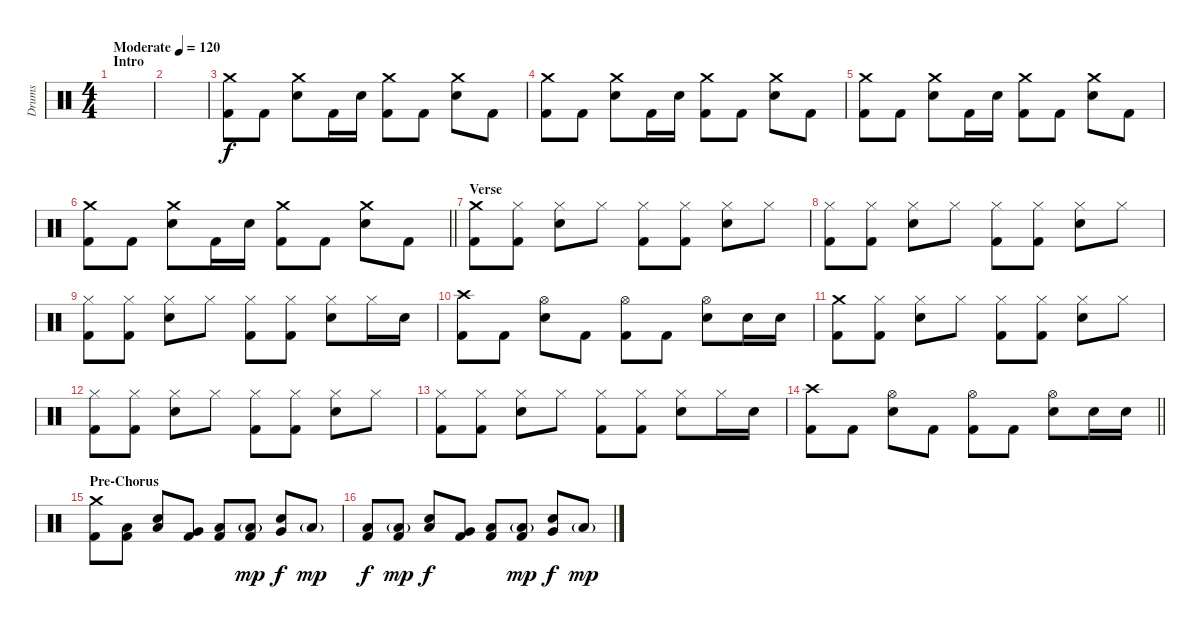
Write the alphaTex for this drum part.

\track ("Drums" "Drums") {instrument percussion}
\staff {score}
\articulation defaults
\ts (4 4)
\section ("" "Intro")
\tempo (120 "Moderate")
\clef neutral
\ks c
|
|
("Crash medium (hit)" "Kick (hit) 2").8 "Kick (hit) 2".8 ("Crash medium (hit)" "Electric Snare (hit)").8 "Kick (hit) 2".16 "Electric Snare (hit)".16 ("Crash medium (hit)" "Kick (hit) 2").8 "Kick (hit) 2".8 ("Crash medium (hit)" "Electric Snare (hit)").8 "Kick (hit) 2".8 |
("Crash medium (hit)" "Kick (hit) 2").8 "Kick (hit) 2".8 ("Crash medium (hit)" "Electric Snare (hit)").8 "Kick (hit) 2".16 "Electric Snare (hit)".16 ("Crash medium (hit)" "Kick (hit) 2").8 "Kick (hit) 2".8 ("Crash medium (hit)" "Electric Snare (hit)").8 "Kick (hit) 2".8 |
("Crash medium (hit)" "Kick (hit) 2").8 "Kick (hit) 2".8 ("Crash medium (hit)" "Electric Snare (hit)").8 "Kick (hit) 2".16 "Electric Snare (hit)".16 ("Crash medium (hit)" "Kick (hit) 2").8 "Kick (hit) 2".8 ("Crash medium (hit)" "Electric Snare (hit)").8 "Kick (hit) 2".8 |
\barLineRight lightlight
("Crash medium (hit)" "Kick (hit) 2").8 "Kick (hit) 2".8 ("Crash medium (hit)" "Electric Snare (hit)").8 "Kick (hit) 2".16 "Electric Snare (hit)".16 ("Crash medium (hit)" "Kick (hit) 2").8 "Kick (hit) 2".8 ("Crash medium (hit)" "Electric Snare (hit)").8 "Kick (hit) 2".8 |
\section ("" "Verse")
("Crash medium (hit)" "Kick (hit) 2").8 ("Hi-Hat (closed)" "Kick (hit) 2").8 ("Hi-Hat (closed)" "Electric Snare (hit)").8 "Hi-Hat (closed)".8 ("Hi-Hat (closed)" "Kick (hit) 2").8 ("Hi-Hat (closed)" "Kick (hit) 2").8 ("Hi-Hat (closed)" "Electric Snare (hit)").8 "Hi-Hat (closed)".8 |
("Hi-Hat (closed)" "Kick (hit) 2").8 ("Hi-Hat (closed)" "Kick (hit) 2").8 ("Hi-Hat (closed)" "Electric Snare (hit)").8 "Hi-Hat (closed)".8 ("Hi-Hat (closed)" "Kick (hit) 2").8 ("Hi-Hat (closed)" "Kick (hit) 2").8 ("Hi-Hat (closed)" "Electric Snare (hit)").8 "Hi-Hat (closed)".8 |
("Hi-Hat (closed)" "Kick (hit) 2").8 ("Hi-Hat (closed)" "Kick (hit) 2").8 ("Hi-Hat (closed)" "Electric Snare (hit)").8 "Hi-Hat (closed)".8 ("Hi-Hat (closed)" "Kick (hit) 2").8 ("Hi-Hat (closed)" "Kick (hit) 2").8 ("Hi-Hat (closed)" "Electric Snare (hit)").8 "Hi-Hat (closed)".16 "Electric Snare (hit)".16 |
("Crash high (hit)" "Kick (hit) 2").8 "Kick (hit) 2".8 ("Hi-Hat (open)" "Electric Snare (hit)").8 "Kick (hit) 2".8 ("Hi-Hat (open)" "Kick (hit) 2").8 "Kick (hit) 2".8 ("Hi-Hat (open)" "Electric Snare (hit)").8 "Electric Snare (hit)".16 "Electric Snare (hit)".16 |
("Crash medium (hit)" "Kick (hit) 2").8 ("Hi-Hat (closed)" "Kick (hit) 2").8 ("Hi-Hat (closed)" "Electric Snare (hit)").8 "Hi-Hat (closed)".8 ("Hi-Hat (closed)" "Kick (hit) 2").8 ("Hi-Hat (closed)" "Kick (hit) 2").8 ("Hi-Hat (closed)" "Electric Snare (hit)").8 "Hi-Hat (closed)".8 |
("Hi-Hat (closed)" "Kick (hit) 2").8 ("Hi-Hat (closed)" "Kick (hit) 2").8 ("Hi-Hat (closed)" "Electric Snare (hit)").8 "Hi-Hat (closed)".8 ("Hi-Hat (closed)" "Kick (hit) 2").8 ("Hi-Hat (closed)" "Kick (hit) 2").8 ("Hi-Hat (closed)" "Electric Snare (hit)").8 "Hi-Hat (closed)".8 |
("Hi-Hat (closed)" "Kick (hit) 2").8 ("Hi-Hat (closed)" "Kick (hit) 2").8 ("Hi-Hat (closed)" "Electric Snare (hit)").8 "Hi-Hat (closed)".8 ("Hi-Hat (closed)" "Kick (hit) 2").8 ("Hi-Hat (closed)" "Kick (hit) 2").8 ("Hi-Hat (closed)" "Electric Snare (hit)").8 "Hi-Hat (closed)".16 "Electric Snare (hit)".16 |
\barLineRight lightlight
("Crash high (hit)" "Kick (hit) 2").8 "Kick (hit) 2".8 ("Hi-Hat (open)" "Electric Snare (hit)").8 "Kick (hit) 2".8 ("Hi-Hat (open)" "Kick (hit) 2").8 "Kick (hit) 2".8 ("Hi-Hat (open)" "Electric Snare (hit)").8 "Electric Snare (hit)".16 "Electric Snare (hit)".16 |
\section ("" "Pre-Chorus")
("Crash medium (hit)" "Kick (hit) 2").8 ("Low Floor Tom (hit)" "Kick (hit) 2").8 ("Low Floor Tom (hit)" "Electric Snare (hit)").8 ("Very Low Tom (hit)" "Kick (hit) 2").8 ("Low Floor Tom (hit)" "Kick (hit) 2").8 ("Low Floor Tom (hit)"{g} "Kick (hit) 2").8{dy mp} ("Very Low Tom (hit)" "Electric Snare (hit)").8{dy f} "Low Floor Tom (hit)"{g}.8{dy mp} |
("Low Floor Tom (hit)" "Kick (hit) 2").8{dy f} ("Low Floor Tom (hit)"{g} "Kick (hit) 2").8{dy mp} ("Low Floor Tom (hit)" "Electric Snare (hit)").8{dy f} ("Very Low Tom (hit)" "Kick (hit) 2").8 ("Low Floor Tom (hit)" "Kick (hit) 2").8 ("Low Floor Tom (hit)"{g} "Kick (hit) 2").8{dy mp} ("Very Low Tom (hit)" "Electric Snare (hit)").8{dy f} "Low Floor Tom (hit)"{g}.8{dy mp}
